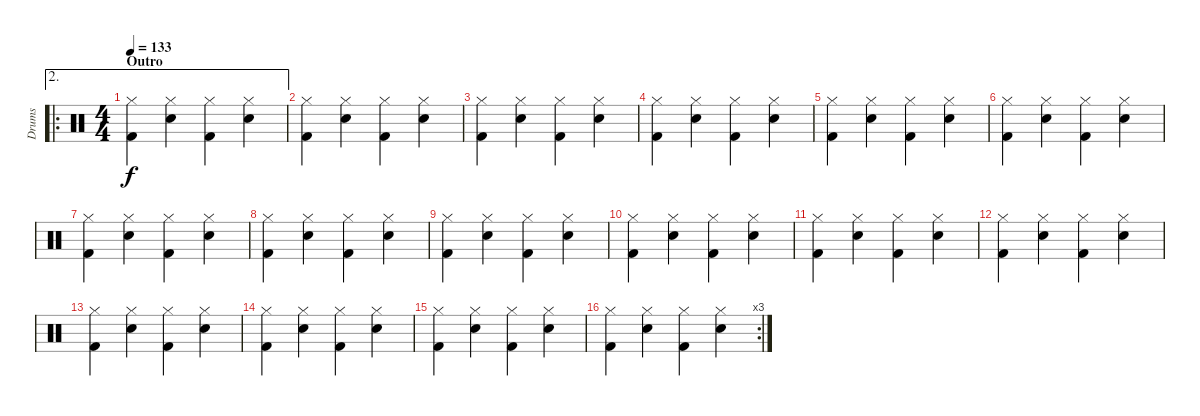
\track ("Drums" "Drums") {instrument percussion}
\staff {score}
\articulation defaults
\ae 2
\ro
\ts (4 4)
\section ("" "Outro")
\tempo 133
\clef neutral
\ks c
("Hi-Hat (closed)" "Kick (hit) 2").4{dy f} ("Hi-Hat (closed)" "Snare (hit) 2").4 ("Hi-Hat (closed)" "Kick (hit) 2").4 ("Hi-Hat (closed)" "Snare (hit) 2").4 |
("Hi-Hat (closed)" "Kick (hit) 2").4 ("Hi-Hat (closed)" "Snare (hit) 2").4 ("Hi-Hat (closed)" "Kick (hit) 2").4 ("Hi-Hat (closed)" "Snare (hit) 2").4 |
("Hi-Hat (closed)" "Kick (hit) 2").4 ("Hi-Hat (closed)" "Snare (hit) 2").4 ("Hi-Hat (closed)" "Kick (hit) 2").4 ("Hi-Hat (closed)" "Snare (hit) 2").4 |
("Hi-Hat (closed)" "Kick (hit) 2").4 ("Hi-Hat (closed)" "Snare (hit) 2").4 ("Hi-Hat (closed)" "Kick (hit) 2").4 ("Hi-Hat (closed)" "Snare (hit) 2").4 |
("Hi-Hat (closed)" "Kick (hit) 2").4 ("Hi-Hat (closed)" "Snare (hit) 2").4 ("Hi-Hat (closed)" "Kick (hit) 2").4 ("Hi-Hat (closed)" "Snare (hit) 2").4 |
("Hi-Hat (closed)" "Kick (hit) 2").4 ("Hi-Hat (closed)" "Snare (hit) 2").4 ("Hi-Hat (closed)" "Kick (hit) 2").4 ("Hi-Hat (closed)" "Snare (hit) 2").4 |
("Hi-Hat (closed)" "Kick (hit) 2").4 ("Hi-Hat (closed)" "Snare (hit) 2").4 ("Hi-Hat (closed)" "Kick (hit) 2").4 ("Hi-Hat (closed)" "Snare (hit) 2").4 |
("Hi-Hat (closed)" "Kick (hit) 2").4 ("Hi-Hat (closed)" "Snare (hit) 2").4 ("Hi-Hat (closed)" "Kick (hit) 2").4 ("Hi-Hat (closed)" "Snare (hit) 2").4 |
("Hi-Hat (closed)" "Kick (hit) 2").4 ("Hi-Hat (closed)" "Snare (hit) 2").4 ("Hi-Hat (closed)" "Kick (hit) 2").4 ("Hi-Hat (closed)" "Snare (hit) 2").4 |
("Hi-Hat (closed)" "Kick (hit) 2").4 ("Hi-Hat (closed)" "Snare (hit) 2").4 ("Hi-Hat (closed)" "Kick (hit) 2").4 ("Hi-Hat (closed)" "Snare (hit) 2").4 |
("Hi-Hat (closed)" "Kick (hit) 2").4 ("Hi-Hat (closed)" "Snare (hit) 2").4 ("Hi-Hat (closed)" "Kick (hit) 2").4 ("Hi-Hat (closed)" "Snare (hit) 2").4 |
("Hi-Hat (closed)" "Kick (hit) 2").4 ("Hi-Hat (closed)" "Snare (hit) 2").4 ("Hi-Hat (closed)" "Kick (hit) 2").4 ("Hi-Hat (closed)" "Snare (hit) 2").4 |
("Hi-Hat (closed)" "Kick (hit) 2").4 ("Hi-Hat (closed)" "Snare (hit) 2").4 ("Hi-Hat (closed)" "Kick (hit) 2").4 ("Hi-Hat (closed)" "Snare (hit) 2").4 |
("Hi-Hat (closed)" "Kick (hit) 2").4 ("Hi-Hat (closed)" "Snare (hit) 2").4 ("Hi-Hat (closed)" "Kick (hit) 2").4 ("Hi-Hat (closed)" "Snare (hit) 2").4 |
("Hi-Hat (closed)" "Kick (hit) 2").4 ("Hi-Hat (closed)" "Snare (hit) 2").4 ("Hi-Hat (closed)" "Kick (hit) 2").4 ("Hi-Hat (closed)" "Snare (hit) 2").4 |
\rc 3
("Hi-Hat (closed)" "Kick (hit) 2").4 ("Hi-Hat (closed)" "Snare (hit) 2").4 ("Hi-Hat (closed)" "Kick (hit) 2").4 ("Hi-Hat (closed)" "Snare (hit) 2").4
